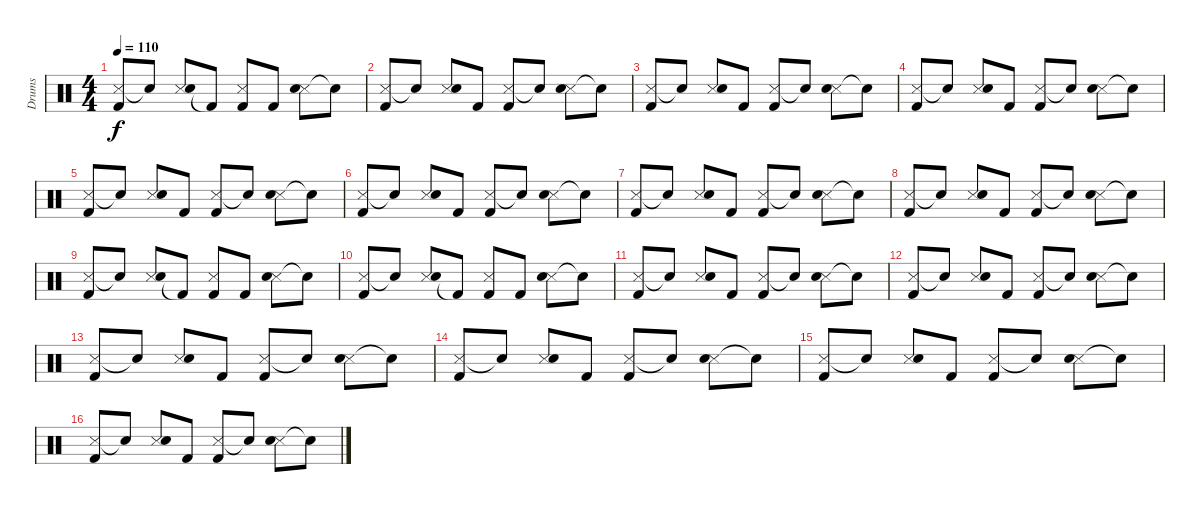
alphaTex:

\track ("Drums" "Drums") {instrument percussion}
\staff {score}
\articulation defaults
\ts (4 4)
\tempo 110
\clef neutral
\ks c
("Snare (side stick) 3" "Kick (hit) 2").8{dy f} "Electric Snare (hit)"{t}.8 ("Snare (side stick) 3" "Snare (hit) 2").8 "Kick (hit) 2"{t}.8 ("Snare (side stick) 3" "Kick (hit) 2").8 "Kick (hit) 2".8 ("Snare (side stick) 3" "Snare (hit) 2").8 "Electric Snare (hit)"{t}.8 |
("Snare (side stick) 3" "Kick (hit) 2").8 "Electric Snare (hit)"{t}.8 ("Snare (side stick) 3" "Snare (hit) 2").8 "Kick (hit) 2".8 ("Snare (side stick) 3" "Kick (hit) 2").8 "Electric Snare (hit)"{t}.8 ("Snare (side stick) 3" "Snare (hit) 2").8 "Electric Snare (hit)"{t}.8 |
("Snare (side stick) 3" "Kick (hit) 2").8 "Electric Snare (hit)"{t}.8 ("Snare (side stick) 3" "Snare (hit) 2").8 "Kick (hit) 2".8 ("Snare (side stick) 3" "Kick (hit) 2").8 "Electric Snare (hit)"{t}.8 ("Snare (side stick) 3" "Snare (hit) 2").8 "Electric Snare (hit)"{t}.8 |
("Snare (side stick) 3" "Kick (hit) 2").8 "Electric Snare (hit)"{t}.8 ("Snare (side stick) 3" "Snare (hit) 2").8 "Kick (hit) 2".8 ("Snare (side stick) 3" "Kick (hit) 2").8 "Electric Snare (hit)"{t}.8 ("Snare (side stick) 3" "Snare (hit) 2").8 "Electric Snare (hit)"{t}.8 |
("Snare (side stick) 3" "Kick (hit) 2").8 "Electric Snare (hit)"{t}.8 ("Snare (side stick) 3" "Snare (hit) 2").8 "Kick (hit) 2".8 ("Snare (side stick) 3" "Kick (hit) 2").8 "Electric Snare (hit)"{t}.8 ("Snare (side stick) 3" "Snare (hit) 2").8 "Electric Snare (hit)"{t}.8 |
("Snare (side stick) 3" "Kick (hit) 2").8 "Electric Snare (hit)"{t}.8 ("Snare (side stick) 3" "Snare (hit) 2").8 "Kick (hit) 2".8 ("Snare (side stick) 3" "Kick (hit) 2").8 "Electric Snare (hit)"{t}.8 ("Snare (side stick) 3" "Snare (hit) 2").8 "Electric Snare (hit)"{t}.8 |
("Snare (side stick) 3" "Kick (hit) 2").8 "Electric Snare (hit)"{t}.8 ("Snare (side stick) 3" "Snare (hit) 2").8 "Kick (hit) 2".8 ("Snare (side stick) 3" "Kick (hit) 2").8 "Electric Snare (hit)"{t}.8 ("Snare (side stick) 3" "Snare (hit) 2").8 "Electric Snare (hit)"{t}.8 |
("Snare (side stick) 3" "Kick (hit) 2").8 "Electric Snare (hit)"{t}.8 ("Snare (side stick) 3" "Snare (hit) 2").8 "Kick (hit) 2".8 ("Snare (side stick) 3" "Kick (hit) 2").8 "Electric Snare (hit)"{t}.8 ("Snare (side stick) 3" "Snare (hit) 2").8 "Electric Snare (hit)"{t}.8 |
("Snare (side stick) 3" "Kick (hit) 2").8 "Electric Snare (hit)"{t}.8 ("Snare (side stick) 3" "Snare (hit) 2").8 "Kick (hit) 2"{t}.8 ("Snare (side stick) 3" "Kick (hit) 2").8 "Kick (hit) 2".8 ("Snare (side stick) 3" "Snare (hit) 2").8 "Electric Snare (hit)"{t}.8 |
("Snare (side stick) 3" "Kick (hit) 2").8 "Electric Snare (hit)"{t}.8 ("Snare (side stick) 3" "Snare (hit) 2").8 "Kick (hit) 2"{t}.8 ("Snare (side stick) 3" "Kick (hit) 2").8 "Kick (hit) 2".8 ("Snare (side stick) 3" "Snare (hit) 2").8 "Electric Snare (hit)"{t}.8 |
("Snare (side stick) 3" "Kick (hit) 2").8 "Electric Snare (hit)"{t}.8 ("Snare (side stick) 3" "Snare (hit) 2").8 "Kick (hit) 2".8 ("Snare (side stick) 3" "Kick (hit) 2").8 "Electric Snare (hit)"{t}.8 ("Snare (side stick) 3" "Snare (hit) 2").8 "Electric Snare (hit)"{t}.8 |
("Snare (side stick) 3" "Kick (hit) 2").8 "Electric Snare (hit)"{t}.8 ("Snare (side stick) 3" "Snare (hit) 2").8 "Kick (hit) 2".8 ("Snare (side stick) 3" "Kick (hit) 2").8 "Electric Snare (hit)"{t}.8 ("Snare (side stick) 3" "Snare (hit) 2").8 "Electric Snare (hit)"{t}.8 |
("Snare (side stick) 3" "Kick (hit) 2").8 "Electric Snare (hit)"{t}.8 ("Snare (side stick) 3" "Snare (hit) 2").8 "Kick (hit) 2".8 ("Snare (side stick) 3" "Kick (hit) 2").8 "Electric Snare (hit)"{t}.8 ("Snare (side stick) 3" "Snare (hit) 2").8 "Electric Snare (hit)"{t}.8 |
("Snare (side stick) 3" "Kick (hit) 2").8 "Electric Snare (hit)"{t}.8 ("Snare (side stick) 3" "Snare (hit) 2").8 "Kick (hit) 2".8 ("Snare (side stick) 3" "Kick (hit) 2").8 "Electric Snare (hit)"{t}.8 ("Snare (side stick) 3" "Snare (hit) 2").8 "Electric Snare (hit)"{t}.8 |
("Snare (side stick) 3" "Kick (hit) 2").8 "Electric Snare (hit)"{t}.8 ("Snare (side stick) 3" "Snare (hit) 2").8 "Kick (hit) 2".8 ("Snare (side stick) 3" "Kick (hit) 2").8 "Electric Snare (hit)"{t}.8 ("Snare (side stick) 3" "Snare (hit) 2").8 "Electric Snare (hit)"{t}.8 |
("Snare (side stick) 3" "Kick (hit) 2").8 "Electric Snare (hit)"{t}.8 ("Snare (side stick) 3" "Snare (hit) 2").8 "Kick (hit) 2".8 ("Snare (side stick) 3" "Kick (hit) 2").8 "Electric Snare (hit)"{t}.8 ("Snare (side stick) 3" "Snare (hit) 2").8 "Electric Snare (hit)"{t}.8
